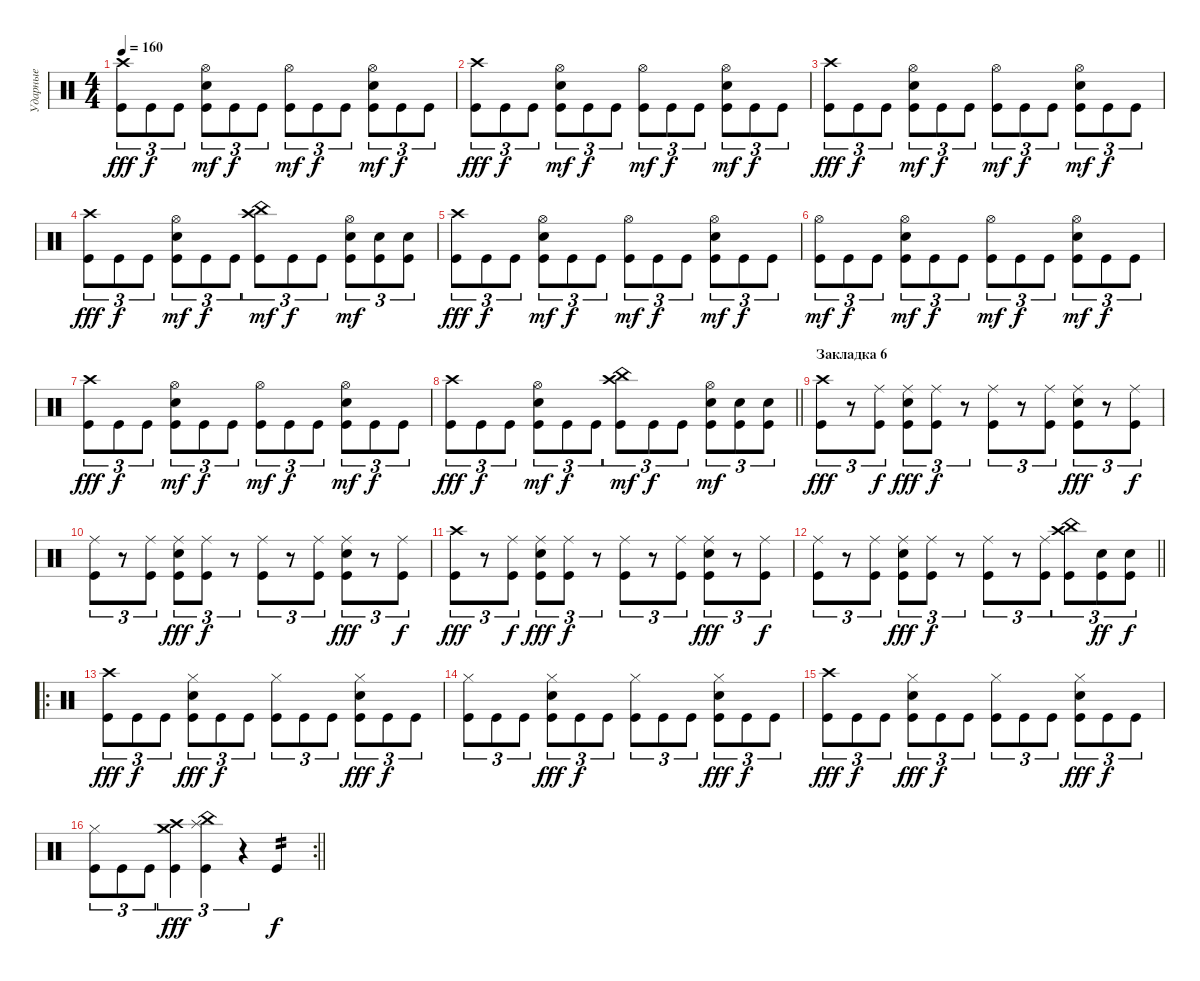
\track ("Ударные" "Ударные") {instrument percussion}
\staff {score}
\articulation defaults
\ts (4 4)
\tempo 160
\clef neutral
\ks c
("Kick (hit)" "Crash high (hit)").8{tu (3 2) dy fff} "Kick (hit)".8{tu (3 2) dy f} "Kick (hit)".8{tu (3 2)} ("Kick (hit)" "Snare (hit) 2" "Hi-Hat (open)").8{tu (3 2) dy mf} "Kick (hit)".8{tu (3 2) dy f} "Kick (hit)".8{tu (3 2)} ("Kick (hit)" "Hi-Hat (open)").8{tu (3 2) dy mf} "Kick (hit)".8{tu (3 2) dy f} "Kick (hit)".8{tu (3 2)} ("Kick (hit)" "Snare (hit) 2" "Hi-Hat (open)").8{tu (3 2) dy mf} "Kick (hit)".8{tu (3 2) dy f} "Kick (hit)".8{tu (3 2)} |
("Kick (hit)" "Crash high (hit)").8{tu (3 2) dy fff} "Kick (hit)".8{tu (3 2) dy f} "Kick (hit)".8{tu (3 2)} ("Kick (hit)" "Snare (hit) 2" "Hi-Hat (open)").8{tu (3 2) dy mf} "Kick (hit)".8{tu (3 2) dy f} "Kick (hit)".8{tu (3 2)} ("Kick (hit)" "Hi-Hat (open)").8{tu (3 2) dy mf} "Kick (hit)".8{tu (3 2) dy f} "Kick (hit)".8{tu (3 2)} ("Kick (hit)" "Snare (hit) 2" "Hi-Hat (open)").8{tu (3 2) dy mf} "Kick (hit)".8{tu (3 2) dy f} "Kick (hit)".8{tu (3 2)} |
("Kick (hit)" "Crash high (hit)").8{tu (3 2) dy fff} "Kick (hit)".8{tu (3 2) dy f} "Kick (hit)".8{tu (3 2)} ("Kick (hit)" "Snare (hit) 2" "Hi-Hat (open)").8{tu (3 2) dy mf} "Kick (hit)".8{tu (3 2) dy f} "Kick (hit)".8{tu (3 2)} ("Kick (hit)" "Hi-Hat (open)").8{tu (3 2) dy mf} "Kick (hit)".8{tu (3 2) dy f} "Kick (hit)".8{tu (3 2)} ("Kick (hit)" "Snare (hit) 2" "Hi-Hat (open)").8{tu (3 2) dy mf} "Kick (hit)".8{tu (3 2) dy f} "Kick (hit)".8{tu (3 2)} |
("Kick (hit)" "Crash high (hit)").8{tu (3 2) dy fff} "Kick (hit)".8{tu (3 2) dy f} "Kick (hit)".8{tu (3 2)} ("Kick (hit)" "Snare (hit) 2" "Hi-Hat (open)").8{tu (3 2) dy mf} "Kick (hit)".8{tu (3 2) dy f} "Kick (hit)".8{tu (3 2)} ("Kick (hit)" "China (hit)" "Crash high (hit)").8{tu (3 2) dy mf} "Kick (hit)".8{tu (3 2) dy f} "Kick (hit)".8{tu (3 2)} ("Kick (hit)" "Snare (hit) 2" "Hi-Hat (open)").8{tu (3 2) dy mf} ("Kick (hit)" "Snare (hit) 2").8{tu (3 2)} ("Kick (hit)" "Snare (hit) 2").8{tu (3 2)} |
("Kick (hit)" "Crash high (hit)").8{tu (3 2) dy fff} "Kick (hit)".8{tu (3 2) dy f} "Kick (hit)".8{tu (3 2)} ("Kick (hit)" "Snare (hit) 2" "Hi-Hat (open)").8{tu (3 2) dy mf} "Kick (hit)".8{tu (3 2) dy f} "Kick (hit)".8{tu (3 2)} ("Kick (hit)" "Hi-Hat (open)").8{tu (3 2) dy mf} "Kick (hit)".8{tu (3 2) dy f} "Kick (hit)".8{tu (3 2)} ("Kick (hit)" "Snare (hit) 2" "Hi-Hat (open)").8{tu (3 2) dy mf} "Kick (hit)".8{tu (3 2) dy f} "Kick (hit)".8{tu (3 2)} |
("Kick (hit)" "Hi-Hat (open)").8{tu (3 2) dy mf} "Kick (hit)".8{tu (3 2) dy f} "Kick (hit)".8{tu (3 2)} ("Kick (hit)" "Snare (hit) 2" "Hi-Hat (open)").8{tu (3 2) dy mf} "Kick (hit)".8{tu (3 2) dy f} "Kick (hit)".8{tu (3 2)} ("Kick (hit)" "Hi-Hat (open)").8{tu (3 2) dy mf} "Kick (hit)".8{tu (3 2) dy f} "Kick (hit)".8{tu (3 2)} ("Kick (hit)" "Snare (hit) 2" "Hi-Hat (open)").8{tu (3 2) dy mf} "Kick (hit)".8{tu (3 2) dy f} "Kick (hit)".8{tu (3 2)} |
("Kick (hit)" "Crash high (hit)").8{tu (3 2) dy fff} "Kick (hit)".8{tu (3 2) dy f} "Kick (hit)".8{tu (3 2)} ("Kick (hit)" "Snare (hit) 2" "Hi-Hat (open)").8{tu (3 2) dy mf} "Kick (hit)".8{tu (3 2) dy f} "Kick (hit)".8{tu (3 2)} ("Kick (hit)" "Hi-Hat (open)").8{tu (3 2) dy mf} "Kick (hit)".8{tu (3 2) dy f} "Kick (hit)".8{tu (3 2)} ("Kick (hit)" "Snare (hit) 2" "Hi-Hat (open)").8{tu (3 2) dy mf} "Kick (hit)".8{tu (3 2) dy f} "Kick (hit)".8{tu (3 2)} |
\barLineRight lightlight
("Kick (hit)" "Crash high (hit)").8{tu (3 2) dy fff} "Kick (hit)".8{tu (3 2) dy f} "Kick (hit)".8{tu (3 2)} ("Kick (hit)" "Snare (hit) 2" "Hi-Hat (open)").8{tu (3 2) dy mf} "Kick (hit)".8{tu (3 2) dy f} "Kick (hit)".8{tu (3 2)} ("Kick (hit)" "China (hit)" "Crash high (hit)").8{tu (3 2) dy mf} "Kick (hit)".8{tu (3 2) dy f} "Kick (hit)".8{tu (3 2)} ("Kick (hit)" "Snare (hit) 2" "Hi-Hat (open)").8{tu (3 2) dy mf} ("Kick (hit)" "Snare (hit) 2").8{tu (3 2)} ("Kick (hit)" "Snare (hit) 2").8{tu (3 2)} |
\section ("" "Закладка 6")
("Kick (hit)" "Crash high (hit)").8{tu (3 2) dy fff} r.8{tu (3 2)} ("Kick (hit)" "Ride (middle)").8{tu (3 2) dy f} ("Kick (hit)" "Snare (hit) 2" "Ride (middle)").8{tu (3 2) dy fff} ("Kick (hit)" "Ride (middle)").8{tu (3 2) dy f} r.8{tu (3 2)} ("Kick (hit)" "Ride (middle)").8{tu (3 2)} r.8{tu (3 2)} ("Kick (hit)" "Ride (middle)").8{tu (3 2)} ("Kick (hit)" "Snare (hit) 2" "Ride (middle)").8{tu (3 2) dy fff} r.8{tu (3 2)} ("Kick (hit)" "Ride (middle)").8{tu (3 2) dy f} |
("Kick (hit)" "Ride (middle)").8{tu (3 2)} r.8{tu (3 2)} ("Kick (hit)" "Ride (middle)").8{tu (3 2)} ("Kick (hit)" "Snare (hit) 2" "Ride (middle)").8{tu (3 2) dy fff} ("Kick (hit)" "Ride (middle)").8{tu (3 2) dy f} r.8{tu (3 2)} ("Kick (hit)" "Ride (middle)").8{tu (3 2)} r.8{tu (3 2)} ("Kick (hit)" "Ride (middle)").8{tu (3 2)} ("Kick (hit)" "Snare (hit) 2" "Ride (middle)").8{tu (3 2) dy fff} r.8{tu (3 2)} ("Kick (hit)" "Ride (middle)").8{tu (3 2) dy f} |
("Kick (hit)" "Crash high (hit)").8{tu (3 2) dy fff} r.8{tu (3 2)} ("Kick (hit)" "Ride (middle)").8{tu (3 2) dy f} ("Kick (hit)" "Snare (hit) 2" "Ride (middle)").8{tu (3 2) dy fff} ("Kick (hit)" "Ride (middle)").8{tu (3 2) dy f} r.8{tu (3 2)} ("Kick (hit)" "Ride (middle)").8{tu (3 2)} r.8{tu (3 2)} ("Kick (hit)" "Ride (middle)").8{tu (3 2)} ("Kick (hit)" "Snare (hit) 2" "Ride (middle)").8{tu (3 2) dy fff} r.8{tu (3 2)} ("Kick (hit)" "Ride (middle)").8{tu (3 2) dy f} |
\barLineRight lightlight
("Kick (hit)" "Ride (middle)").8{tu (3 2)} r.8{tu (3 2)} ("Kick (hit)" "Ride (middle)").8{tu (3 2)} ("Kick (hit)" "Snare (hit) 2" "Ride (middle)").8{tu (3 2) dy fff} ("Kick (hit)" "Ride (middle)").8{tu (3 2) dy f} r.8{tu (3 2)} ("Kick (hit)" "Ride (middle)").8{tu (3 2)} r.8{tu (3 2)} ("Kick (hit)" "Ride (middle)").8{tu (3 2)} ("Kick (hit)" "Crash high (hit)" "China (hit)").8{tu (3 2)} ("Kick (hit)" "Snare (hit) 2").8{tu (3 2) dy ff} ("Snare (hit) 2" "Kick (hit)").8{tu (3 2) dy f} |
\ro
("Kick (hit)" "Crash high (hit)").8{tu (3 2) dy fff} "Kick (hit)".8{tu (3 2) dy f} "Kick (hit)".8{tu (3 2)} ("Kick (hit)" "Snare (hit) 2" "Hi-Hat (closed)").8{tu (3 2) dy fff} "Kick (hit)".8{tu (3 2) dy f} "Kick (hit)".8{tu (3 2)} ("Kick (hit)" "Hi-Hat (closed)").8{tu (3 2)} "Kick (hit)".8{tu (3 2)} "Kick (hit)".8{tu (3 2)} ("Kick (hit)" "Snare (hit) 2" "Hi-Hat (closed)").8{tu (3 2) dy fff} "Kick (hit)".8{tu (3 2) dy f} "Kick (hit)".8{tu (3 2)} |
("Kick (hit)" "Hi-Hat (closed)").8{tu (3 2)} "Kick (hit)".8{tu (3 2)} "Kick (hit)".8{tu (3 2)} ("Kick (hit)" "Snare (hit) 2" "Hi-Hat (closed)").8{tu (3 2) dy fff} "Kick (hit)".8{tu (3 2) dy f} "Kick (hit)".8{tu (3 2)} ("Kick (hit)" "Hi-Hat (closed)").8{tu (3 2)} "Kick (hit)".8{tu (3 2)} "Kick (hit)".8{tu (3 2)} ("Kick (hit)" "Snare (hit) 2" "Hi-Hat (closed)").8{tu (3 2) dy fff} "Kick (hit)".8{tu (3 2) dy f} "Kick (hit)".8{tu (3 2)} |
("Kick (hit)" "Crash high (hit)").8{tu (3 2) dy fff} "Kick (hit)".8{tu (3 2) dy f} "Kick (hit)".8{tu (3 2)} ("Kick (hit)" "Snare (hit) 2" "Hi-Hat (closed)").8{tu (3 2) dy fff} "Kick (hit)".8{tu (3 2) dy f} "Kick (hit)".8{tu (3 2)} ("Kick (hit)" "Hi-Hat (closed)").8{tu (3 2)} "Kick (hit)".8{tu (3 2)} "Kick (hit)".8{tu (3 2)} ("Kick (hit)" "Snare (hit) 2" "Hi-Hat (closed)").8{tu (3 2) dy fff} "Kick (hit)".8{tu (3 2) dy f} "Kick (hit)".8{tu (3 2)} |
\rc 2
\barLineRight lightlight
("Kick (hit)" "Hi-Hat (closed)").8{tu (3 2)} "Kick (hit)".8{tu (3 2)} "Kick (hit)".8{tu (3 2)} ("Kick (hit)" "Crash high (hit)" "Crash medium (hit)").4{tu (3 2) dy fff} ("Kick (hit)" "Splash (hit)" "China (hit)").4{tu (3 2)} r.4{tu (3 2)} "Kick (hit)".4{tp 2 dy f}
